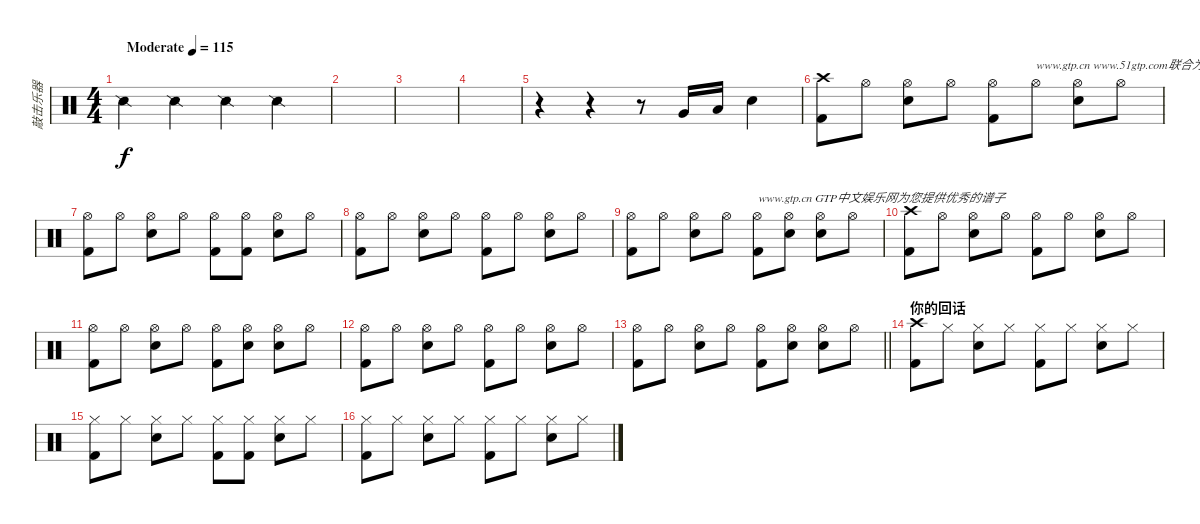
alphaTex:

\track ("敲击乐器" "敲击乐器") {instrument percussion}
\staff {score}
\articulation defaults
\ts (4 4)
\tempo (115 "Moderate")
\clef neutral
\ks c "Snare (side stick) 2".4{dy f} "Snare (side stick) 2".4 "Snare (side stick) 2".4 "Snare (side stick) 2".4
|
|
|
|
r.4 r.4 r.8 "Very Low Tom (hit)".16 "Low Tom (hit)".16 "Snare (hit) 2".4 |
("Crash high (hit)" "Kick (hit) 2").8 "Hi-Hat (open)".8 ("Hi-Hat (open)" "Electric Snare (hit)").8 "Hi-Hat (open)".8 ("Hi-Hat (open)" "Kick (hit) 2").8 "Hi-Hat (open)".8{txt "www.gtp.cn www.51gtp.com联合为您提供优秀的GTP!"} ("Hi-Hat (open)" "Electric Snare (hit)").8 "Hi-Hat (open)".8 |
("Hi-Hat (open)" "Kick (hit) 2").8 "Hi-Hat (open)".8 ("Hi-Hat (open)" "Electric Snare (hit)").8 "Hi-Hat (open)".8 ("Hi-Hat (open)" "Kick (hit) 2").8 ("Hi-Hat (open)" "Kick (hit) 2").8 ("Hi-Hat (open)" "Electric Snare (hit)").8 "Hi-Hat (open)".8 |
("Hi-Hat (open)" "Kick (hit) 2").8 "Hi-Hat (open)".8 ("Hi-Hat (open)" "Electric Snare (hit)").8 "Hi-Hat (open)".8 ("Hi-Hat (open)" "Kick (hit) 2").8 "Hi-Hat (open)".8 ("Hi-Hat (open)" "Electric Snare (hit)").8 "Hi-Hat (open)".8 |
("Hi-Hat (open)" "Kick (hit) 2").8 "Hi-Hat (open)".8 ("Hi-Hat (open)" "Electric Snare (hit)").8 "Hi-Hat (open)".8 ("Hi-Hat (open)" "Kick (hit) 2").8{txt "www.gtp.cn GTP中文娱乐网为您提供优秀的谱子"} ("Hi-Hat (open)" "Snare (hit) 2").8 ("Hi-Hat (open)" "Electric Snare (hit)").8 "Hi-Hat (open)".8 |
("Crash high (hit)" "Kick (hit) 2").8 "Hi-Hat (open)".8 ("Hi-Hat (open)" "Electric Snare (hit)").8 "Hi-Hat (open)".8 ("Hi-Hat (open)" "Kick (hit) 2").8 "Hi-Hat (open)".8 ("Hi-Hat (open)" "Electric Snare (hit)").8 "Hi-Hat (open)".8 |
("Hi-Hat (open)" "Kick (hit) 2").8 "Hi-Hat (open)".8 ("Hi-Hat (open)" "Electric Snare (hit)").8 "Hi-Hat (open)".8 ("Hi-Hat (open)" "Kick (hit) 2").8 ("Hi-Hat (open)" "Snare (hit) 2").8 ("Hi-Hat (open)" "Electric Snare (hit)").8 "Hi-Hat (open)".8 |
("Hi-Hat (open)" "Kick (hit) 2").8 "Hi-Hat (open)".8 ("Hi-Hat (open)" "Electric Snare (hit)").8 "Hi-Hat (open)".8 ("Hi-Hat (open)" "Kick (hit) 2").8 "Hi-Hat (open)".8 ("Hi-Hat (open)" "Electric Snare (hit)").8 "Hi-Hat (open)".8 |
\barLineRight lightlight
("Hi-Hat (open)" "Kick (hit) 2").8 "Hi-Hat (open)".8 ("Hi-Hat (open)" "Electric Snare (hit)").8 "Hi-Hat (open)".8 ("Hi-Hat (open)" "Kick (hit) 2").8 ("Hi-Hat (open)" "Electric Snare (hit)").8 ("Hi-Hat (open)" "Electric Snare (hit)").8 "Hi-Hat (open)".8 |
\section ("" "你的回话")
("Crash high (hit)" "Kick (hit) 2").8 "Hi-Hat (closed)".8 ("Hi-Hat (closed)" "Electric Snare (hit)").8 "Hi-Hat (closed)".8 ("Hi-Hat (closed)" "Kick (hit) 2").8 "Hi-Hat (closed)".8 ("Hi-Hat (closed)" "Electric Snare (hit)").8 "Hi-Hat (closed)".8 |
("Hi-Hat (closed)" "Kick (hit) 2").8 "Hi-Hat (closed)".8 ("Hi-Hat (closed)" "Electric Snare (hit)").8 "Hi-Hat (closed)".8 ("Hi-Hat (closed)" "Kick (hit) 2").8 ("Hi-Hat (closed)" "Kick (hit) 2").8 ("Hi-Hat (closed)" "Electric Snare (hit)").8 "Hi-Hat (closed)".8 |
("Hi-Hat (closed)" "Kick (hit) 2").8 "Hi-Hat (closed)".8 ("Hi-Hat (closed)" "Electric Snare (hit)").8 "Hi-Hat (closed)".8 ("Hi-Hat (closed)" "Kick (hit) 2").8 "Hi-Hat (closed)".8 ("Hi-Hat (closed)" "Electric Snare (hit)").8 "Hi-Hat (closed)".8
